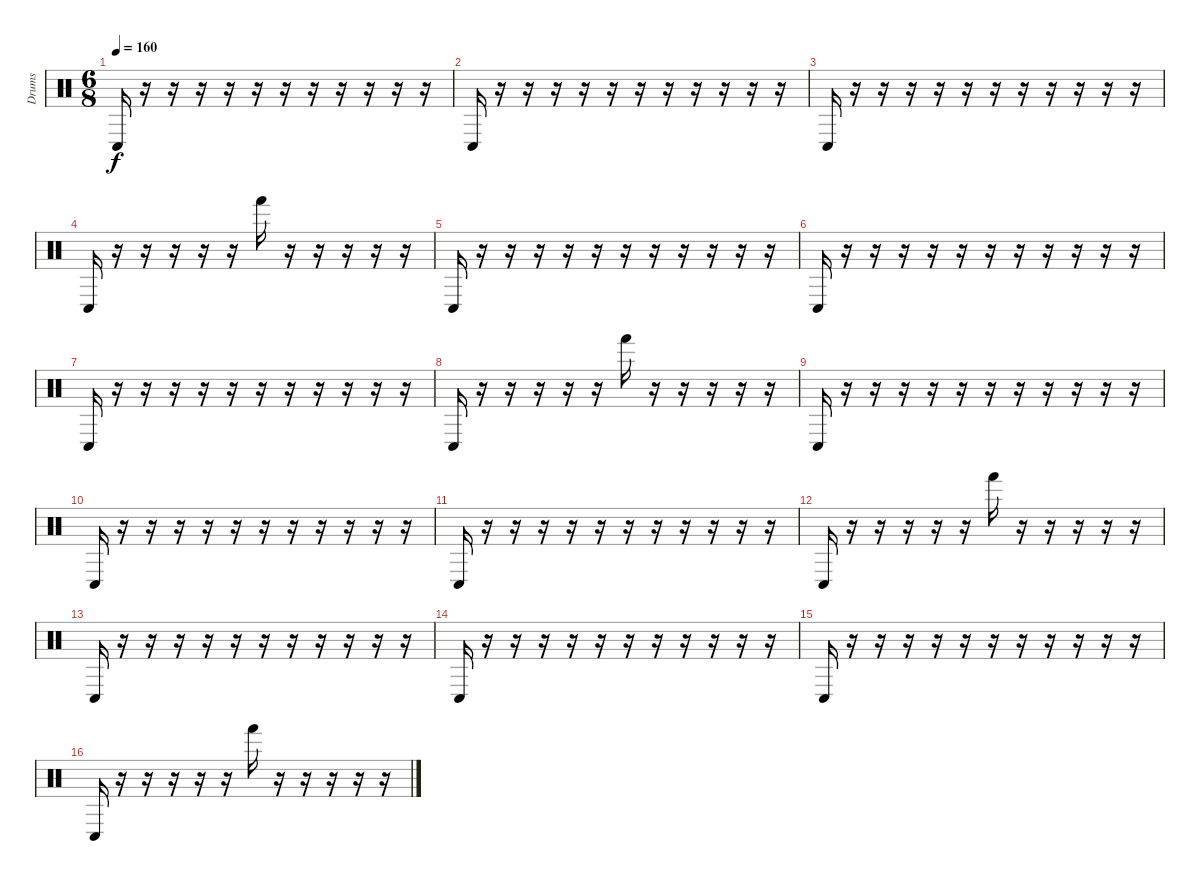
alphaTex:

\track ("Drums" "Drums") {instrument percussion}
\staff {score}
\articulation defaults
\ts (6 8)
\tempo 160
\clef neutral
\ks c "Conga low (hit)".16{dy f}
r.16 r.16 r.16 r.16 r.16 r.16 r.16 r.16 r.16 r.16 r.16 |
"Conga low (hit)".16 r.16 r.16 r.16 r.16 r.16 r.16 r.16 r.16 r.16 r.16 r.16 |
"Conga low (hit)".16 r.16 r.16 r.16 r.16 r.16 r.16 r.16 r.16 r.16 r.16 r.16 |
"Conga low (hit)".16 r.16 r.16 r.16 r.16 r.16 "Hand (hit)".16 r.16 r.16 r.16 r.16 r.16 |
"Conga low (hit)".16 r.16 r.16 r.16 r.16 r.16 r.16 r.16 r.16 r.16 r.16 r.16 |
"Conga low (hit)".16 r.16 r.16 r.16 r.16 r.16 r.16 r.16 r.16 r.16 r.16 r.16 |
"Conga low (hit)".16 r.16 r.16 r.16 r.16 r.16 r.16 r.16 r.16 r.16 r.16 r.16 |
"Conga low (hit)".16 r.16 r.16 r.16 r.16 r.16 "Hand (hit)".16 r.16 r.16 r.16 r.16 r.16 |
"Conga low (hit)".16 r.16 r.16 r.16 r.16 r.16 r.16 r.16 r.16 r.16 r.16 r.16 |
"Conga low (hit)".16 r.16 r.16 r.16 r.16 r.16 r.16 r.16 r.16 r.16 r.16 r.16 |
"Conga low (hit)".16 r.16 r.16 r.16 r.16 r.16 r.16 r.16 r.16 r.16 r.16 r.16 |
"Conga low (hit)".16 r.16 r.16 r.16 r.16 r.16 "Hand (hit)".16 r.16 r.16 r.16 r.16 r.16 |
"Conga low (hit)".16 r.16 r.16 r.16 r.16 r.16 r.16 r.16 r.16 r.16 r.16 r.16 |
"Conga low (hit)".16 r.16 r.16 r.16 r.16 r.16 r.16 r.16 r.16 r.16 r.16 r.16 |
"Conga low (hit)".16 r.16 r.16 r.16 r.16 r.16 r.16 r.16 r.16 r.16 r.16 r.16 |
"Conga low (hit)".16 r.16 r.16 r.16 r.16 r.16 "Hand (hit)".16 r.16 r.16 r.16 r.16 r.16
